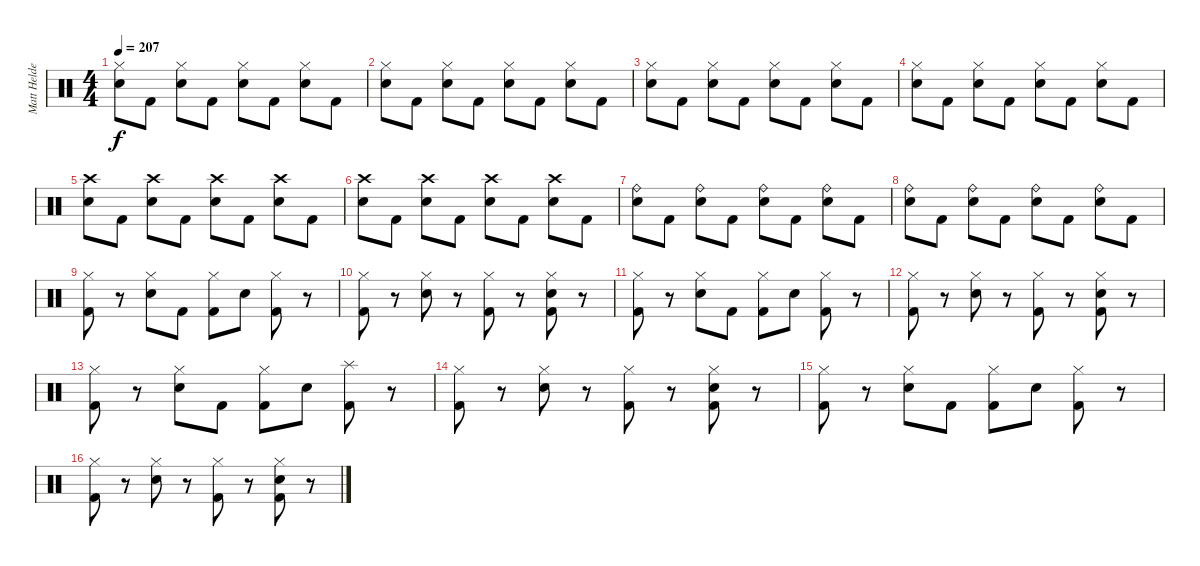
\track ("Matt Helders - Drums" "Matt Helde") {instrument percussion}
\staff {score}
\articulation defaults
\ts (4 4)
\tempo 207
\clef neutral
\ks c
("Hi-Hat (closed)" "Electric Snare (hit)").8{dy f} "Kick (hit) 2".8 ("Hi-Hat (closed)" "Electric Snare (hit)").8 "Kick (hit) 2".8 ("Hi-Hat (closed)" "Electric Snare (hit)").8 "Kick (hit) 2".8 ("Hi-Hat (closed)" "Electric Snare (hit)").8 "Kick (hit) 2".8 |
("Hi-Hat (closed)" "Electric Snare (hit)").8 "Kick (hit) 2".8 ("Hi-Hat (closed)" "Electric Snare (hit)").8 "Kick (hit) 2".8 ("Hi-Hat (closed)" "Electric Snare (hit)").8 "Kick (hit) 2".8 ("Hi-Hat (closed)" "Electric Snare (hit)").8 "Kick (hit) 2".8 |
("Hi-Hat (closed)" "Electric Snare (hit)").8 "Kick (hit) 2".8 ("Hi-Hat (closed)" "Electric Snare (hit)").8 "Kick (hit) 2".8 ("Hi-Hat (closed)" "Electric Snare (hit)").8 "Kick (hit) 2".8 ("Hi-Hat (closed)" "Electric Snare (hit)").8 "Kick (hit) 2".8 |
("Hi-Hat (closed)" "Electric Snare (hit)").8 "Kick (hit) 2".8 ("Hi-Hat (closed)" "Electric Snare (hit)").8 "Kick (hit) 2".8 ("Hi-Hat (closed)" "Electric Snare (hit)").8 "Kick (hit) 2".8 ("Hi-Hat (closed)" "Electric Snare (hit)").8 "Kick (hit) 2".8 |
("Crash high (hit)" "Electric Snare (hit)").8 "Kick (hit) 2".8 ("Crash high (hit)" "Electric Snare (hit)").8 "Kick (hit) 2".8 ("Crash high (hit)" "Electric Snare (hit)").8 "Kick (hit) 2".8 ("Crash high (hit)" "Electric Snare (hit)").8 "Kick (hit) 2".8 |
("Crash high (hit)" "Electric Snare (hit)").8 "Kick (hit) 2".8 ("Crash high (hit)" "Electric Snare (hit)").8 "Kick (hit) 2".8 ("Crash high (hit)" "Electric Snare (hit)").8 "Kick (hit) 2".8 ("Crash high (hit)" "Electric Snare (hit)").8 "Kick (hit) 2".8 |
("Ride (bell)" "Electric Snare (hit)").8 "Kick (hit) 2".8 ("Ride (bell)" "Electric Snare (hit)").8 "Kick (hit) 2".8 ("Ride (bell)" "Electric Snare (hit)").8 "Kick (hit) 2".8 ("Ride (bell)" "Electric Snare (hit)").8 "Kick (hit) 2".8 |
("Ride (bell)" "Electric Snare (hit)").8 "Kick (hit) 2".8 ("Ride (bell)" "Electric Snare (hit)").8 "Kick (hit) 2".8 ("Ride (bell)" "Electric Snare (hit)").8 "Kick (hit) 2".8 ("Ride (bell)" "Electric Snare (hit)").8 "Kick (hit) 2".8 |
("Hi-Hat (closed)" "Kick (hit) 2").8 r.8 ("Hi-Hat (closed)" "Electric Snare (hit)").8 "Kick (hit) 2".8 ("Hi-Hat (closed)" "Kick (hit) 2").8 "Electric Snare (hit)".8 ("Hi-Hat (closed)" "Kick (hit) 2").8 r.8 |
("Hi-Hat (closed)" "Kick (hit) 2").8 r.8 ("Hi-Hat (closed)" "Electric Snare (hit)").8 r.8 ("Hi-Hat (closed)" "Kick (hit) 2").8 r.8 ("Hi-Hat (closed)" "Electric Snare (hit)" "Kick (hit) 2").8 r.8 |
("Hi-Hat (closed)" "Kick (hit) 2").8 r.8 ("Hi-Hat (closed)" "Electric Snare (hit)").8 "Kick (hit) 2".8 ("Hi-Hat (closed)" "Kick (hit) 2").8 "Electric Snare (hit)".8 ("Hi-Hat (closed)" "Kick (hit) 2").8 r.8 |
("Hi-Hat (closed)" "Kick (hit) 2").8 r.8 ("Hi-Hat (closed)" "Electric Snare (hit)").8 r.8 ("Hi-Hat (closed)" "Kick (hit) 2").8 r.8 ("Hi-Hat (closed)" "Electric Snare (hit)" "Kick (hit) 2").8 r.8 |
("Hi-Hat (closed)" "Kick (hit) 2").8 r.8 ("Hi-Hat (closed)" "Electric Snare (hit)").8 "Kick (hit) 2".8 ("Hi-Hat (closed)" "Kick (hit) 2").8 "Electric Snare (hit)".8 ("Splash (hit)" "Kick (hit) 2").8 r.8 |
("Hi-Hat (closed)" "Kick (hit) 2").8 r.8 ("Hi-Hat (closed)" "Electric Snare (hit)").8 r.8 ("Hi-Hat (closed)" "Kick (hit) 2").8 r.8 ("Hi-Hat (closed)" "Electric Snare (hit)" "Kick (hit) 2").8 r.8 |
("Hi-Hat (closed)" "Kick (hit) 2").8 r.8 ("Hi-Hat (closed)" "Electric Snare (hit)").8 "Kick (hit) 2".8 ("Hi-Hat (closed)" "Kick (hit) 2").8 "Electric Snare (hit)".8 ("Hi-Hat (closed)" "Kick (hit) 2").8 r.8 |
("Hi-Hat (closed)" "Kick (hit) 2").8 r.8 ("Hi-Hat (closed)" "Electric Snare (hit)").8 r.8 ("Hi-Hat (closed)" "Kick (hit) 2").8 r.8 ("Hi-Hat (closed)" "Electric Snare (hit)" "Kick (hit) 2").8 r.8
